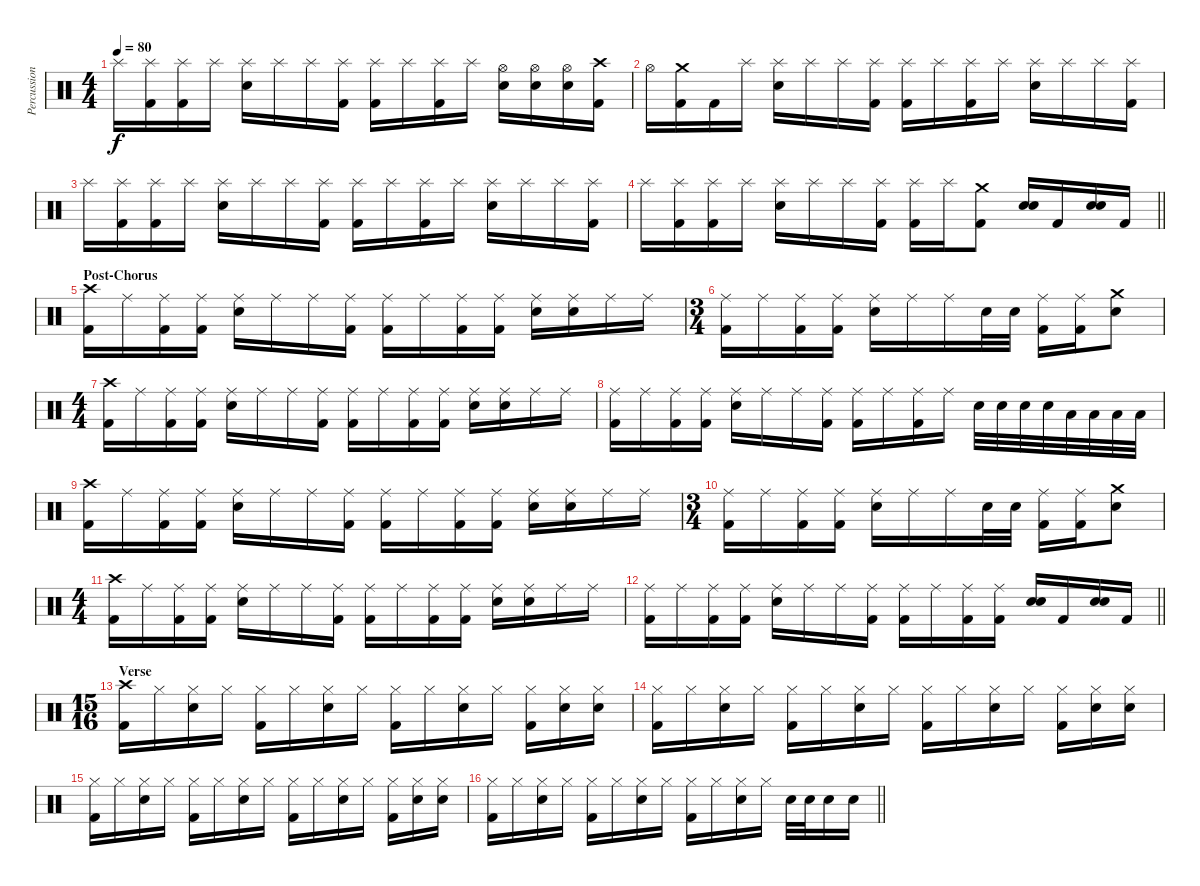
\track ("Percussion" "Percussion") {instrument percussion}
\staff {score}
\articulation defaults
\ts (4 4)
\tempo 80
\clef neutral
\ks c "Splash (hit)".16{dy f}
("Splash (hit)" "Kick (hit) 2").16 ("Splash (hit)" "Kick (hit) 2").16 "Splash (hit)".16 ("Splash (hit)" "Electric Snare (hit)").16 "Splash (hit)".16 "Splash (hit)".16 ("Splash (hit)" "Kick (hit) 2").16 ("Splash (hit)" "Kick (hit) 2").16 "Splash (hit)".16 ("Splash (hit)" "Kick (hit) 2").16 "Splash (hit)".16 ("Hi-Hat (open)" "Electric Snare (hit)").16 ("Hi-Hat (open)" "Electric Snare (hit)").16 ("Hi-Hat (open)" "Electric Snare (hit)").16 ("Crash high (hit)" "Kick (hit) 2").16 |
"Hi-Hat (open)".16 ("Crash medium (hit)" "Kick (hit) 2").16 "Kick (hit) 2".16 "Splash (hit)".16 ("Splash (hit)" "Electric Snare (hit)").16 "Splash (hit)".16 "Splash (hit)".16 ("Splash (hit)" "Kick (hit) 2").16 ("Splash (hit)" "Kick (hit) 2").16 "Splash (hit)".16 ("Splash (hit)" "Kick (hit) 2").16 "Splash (hit)".16 ("Splash (hit)" "Electric Snare (hit)").16 "Splash (hit)".16 "Splash (hit)".16 ("Splash (hit)" "Kick (hit) 2").16 |
"Splash (hit)".16 ("Splash (hit)" "Kick (hit) 2").16 ("Splash (hit)" "Kick (hit) 2").16 "Splash (hit)".16 ("Splash (hit)" "Electric Snare (hit)").16 "Splash (hit)".16 "Splash (hit)".16 ("Splash (hit)" "Kick (hit) 2").16 ("Splash (hit)" "Kick (hit) 2").16 "Splash (hit)".16 ("Splash (hit)" "Kick (hit) 2").16 "Splash (hit)".16 ("Splash (hit)" "Electric Snare (hit)").16 "Splash (hit)".16 "Splash (hit)".16 ("Splash (hit)" "Kick (hit) 2").16 |
\barLineRight lightlight "Splash (hit)".16
("Splash (hit)" "Kick (hit) 2").16 ("Splash (hit)" "Kick (hit) 2").16 "Splash (hit)".16 ("Splash (hit)" "Electric Snare (hit)").16 "Splash (hit)".16 "Splash (hit)".16 ("Splash (hit)" "Kick (hit) 2").16 ("Splash (hit)" "Kick (hit) 2").16 "Splash (hit)".16 ("Crash medium (hit)" "Kick (hit) 2").8 ("Electric Snare (hit)" "Electric Snare (hit)").16 "Kick (hit) 2".16 ("Electric Snare (hit)" "Electric Snare (hit)").16 "Kick (hit) 2".16 |
\section ("" "Post-Chorus")
("Crash high (hit)" "Kick (hit) 2").16 "Ride (middle)".16 ("Ride (middle)" "Kick (hit) 2").16 ("Ride (middle)" "Kick (hit) 2").16 ("Ride (middle)" "Electric Snare (hit)").16 "Ride (middle)".16 "Ride (middle)".16 ("Ride (middle)" "Kick (hit) 2").16 ("Ride (middle)" "Kick (hit) 2").16 "Ride (middle)".16 ("Ride (middle)" "Kick (hit) 2").16 ("Ride (middle)" "Kick (hit) 2").16 ("Ride (middle)" "Electric Snare (hit)").16 ("Ride (middle)" "Electric Snare (hit)").16 "Ride (middle)".16 "Ride (middle)".16 |
\ts (3 4)
("Ride (middle)" "Kick (hit) 2").16 "Ride (middle)".16 ("Ride (middle)" "Kick (hit) 2").16 ("Ride (middle)" "Kick (hit) 2").16 ("Ride (middle)" "Electric Snare (hit)").16 "Ride (middle)".16 "Ride (middle)".16 "Electric Snare (hit)".32 "Electric Snare (hit)".32 ("Ride (middle)" "Kick (hit) 2").16 ("Ride (middle)" "Kick (hit) 2").16 ("Crash medium (hit)" "Electric Snare (hit)").8 |
\ts (4 4)
("Crash high (hit)" "Kick (hit) 2").16 "Ride (middle)".16 ("Ride (middle)" "Kick (hit) 2").16 ("Ride (middle)" "Kick (hit) 2").16 ("Ride (middle)" "Electric Snare (hit)").16 "Ride (middle)".16 "Ride (middle)".16 ("Ride (middle)" "Kick (hit) 2").16 ("Ride (middle)" "Kick (hit) 2").16 "Ride (middle)".16 ("Ride (middle)" "Kick (hit) 2").16 ("Ride (middle)" "Kick (hit) 2").16 ("Ride (middle)" "Electric Snare (hit)").16 ("Ride (middle)" "Electric Snare (hit)").16 "Ride (middle)".16 "Ride (middle)".16 |
("Ride (middle)" "Kick (hit) 2").16 "Ride (middle)".16 ("Ride (middle)" "Kick (hit) 2").16 ("Ride (middle)" "Kick (hit) 2").16 ("Ride (middle)" "Electric Snare (hit)").16 "Ride (middle)".16 "Ride (middle)".16 ("Ride (middle)" "Kick (hit) 2").16 ("Ride (middle)" "Kick (hit) 2").16 "Ride (middle)".16 ("Ride (middle)" "Kick (hit) 2").16 "Ride (middle)".16 "Electric Snare (hit)".32 "Electric Snare (hit)".32 "Electric Snare (hit)".32 "Electric Snare (hit)".32 "Low Tom (hit)".32 "Low Tom (hit)".32 "Low Floor Tom (hit)".32 "Low Floor Tom (hit)".32 |
("Crash high (hit)" "Kick (hit) 2").16 "Ride (middle)".16 ("Ride (middle)" "Kick (hit) 2").16 ("Ride (middle)" "Kick (hit) 2").16 ("Ride (middle)" "Electric Snare (hit)").16 "Ride (middle)".16 "Ride (middle)".16 ("Ride (middle)" "Kick (hit) 2").16 ("Ride (middle)" "Kick (hit) 2").16 "Ride (middle)".16 ("Ride (middle)" "Kick (hit) 2").16 ("Ride (middle)" "Kick (hit) 2").16 ("Ride (middle)" "Electric Snare (hit)").16 ("Ride (middle)" "Electric Snare (hit)").16 "Ride (middle)".16 "Ride (middle)".16 |
\ts (3 4)
("Ride (middle)" "Kick (hit) 2").16 "Ride (middle)".16 ("Ride (middle)" "Kick (hit) 2").16 ("Ride (middle)" "Kick (hit) 2").16 ("Ride (middle)" "Electric Snare (hit)").16 "Ride (middle)".16 "Ride (middle)".16 "Electric Snare (hit)".32 "Electric Snare (hit)".32 ("Ride (middle)" "Kick (hit) 2").16 ("Ride (middle)" "Kick (hit) 2").16 ("Crash medium (hit)" "Electric Snare (hit)").8 |
\ts (4 4)
("Crash high (hit)" "Kick (hit) 2").16 "Ride (middle)".16 ("Ride (middle)" "Kick (hit) 2").16 ("Ride (middle)" "Kick (hit) 2").16 ("Ride (middle)" "Electric Snare (hit)").16 "Ride (middle)".16 "Ride (middle)".16 ("Ride (middle)" "Kick (hit) 2").16 ("Ride (middle)" "Kick (hit) 2").16 "Ride (middle)".16 ("Ride (middle)" "Kick (hit) 2").16 ("Ride (middle)" "Kick (hit) 2").16 ("Ride (middle)" "Electric Snare (hit)").16 ("Ride (middle)" "Electric Snare (hit)").16 "Ride (middle)".16 "Ride (middle)".16 |
\barLineRight lightlight
("Ride (middle)" "Kick (hit) 2").16 "Ride (middle)".16 ("Ride (middle)" "Kick (hit) 2").16 ("Ride (middle)" "Kick (hit) 2").16 ("Ride (middle)" "Electric Snare (hit)").16 "Ride (middle)".16 "Ride (middle)".16 ("Ride (middle)" "Kick (hit) 2").16 ("Ride (middle)" "Kick (hit) 2").16 "Ride (middle)".16 ("Ride (middle)" "Kick (hit) 2").16 ("Ride (middle)" "Kick (hit) 2").16 ("Electric Snare (hit)" "Electric Snare (hit)").16 "Kick (hit) 2".16 ("Electric Snare (hit)" "Electric Snare (hit)").16 "Kick (hit) 2".16 |
\ts (15 16)
\section ("" "Verse")
("Crash high (hit)" "Kick (hit) 2").16 "Hi-Hat (closed)".16 ("Hi-Hat (closed)" "Electric Snare (hit)").16 "Hi-Hat (closed)".16 ("Hi-Hat (closed)" "Kick (hit) 2").16 "Hi-Hat (closed)".16 ("Hi-Hat (closed)" "Electric Snare (hit)").16 "Hi-Hat (closed)".16 ("Hi-Hat (closed)" "Kick (hit) 2").16 "Hi-Hat (closed)".16 ("Hi-Hat (closed)" "Electric Snare (hit)").16 "Hi-Hat (closed)".16 ("Hi-Hat (closed)" "Kick (hit) 2").16 ("Hi-Hat (closed)" "Electric Snare (hit)").16 ("Hi-Hat (closed)" "Electric Snare (hit)").16 |
("Hi-Hat (closed)" "Kick (hit) 2").16 "Hi-Hat (closed)".16 ("Hi-Hat (closed)" "Electric Snare (hit)").16 "Hi-Hat (closed)".16 ("Hi-Hat (closed)" "Kick (hit) 2").16 "Hi-Hat (closed)".16 ("Hi-Hat (closed)" "Electric Snare (hit)").16 "Hi-Hat (closed)".16 ("Hi-Hat (closed)" "Kick (hit) 2").16 "Hi-Hat (closed)".16 ("Hi-Hat (closed)" "Electric Snare (hit)").16 "Hi-Hat (closed)".16 ("Hi-Hat (closed)" "Kick (hit) 2").16 ("Hi-Hat (closed)" "Electric Snare (hit)").16 ("Hi-Hat (closed)" "Electric Snare (hit)").16 |
("Hi-Hat (closed)" "Kick (hit) 2").16 "Hi-Hat (closed)".16 ("Hi-Hat (closed)" "Electric Snare (hit)").16 "Hi-Hat (closed)".16 ("Hi-Hat (closed)" "Kick (hit) 2").16 "Hi-Hat (closed)".16 ("Hi-Hat (closed)" "Electric Snare (hit)").16 "Hi-Hat (closed)".16 ("Hi-Hat (closed)" "Kick (hit) 2").16 "Hi-Hat (closed)".16 ("Hi-Hat (closed)" "Electric Snare (hit)").16 "Hi-Hat (closed)".16 ("Hi-Hat (closed)" "Kick (hit) 2").16 ("Hi-Hat (closed)" "Electric Snare (hit)").16 ("Hi-Hat (closed)" "Electric Snare (hit)").16 |
\barLineRight lightlight
("Hi-Hat (closed)" "Kick (hit) 2").16 "Hi-Hat (closed)".16 ("Hi-Hat (closed)" "Electric Snare (hit)").16 "Hi-Hat (closed)".16 ("Hi-Hat (closed)" "Kick (hit) 2").16 "Hi-Hat (closed)".16 ("Hi-Hat (closed)" "Electric Snare (hit)").16 "Hi-Hat (closed)".16 ("Hi-Hat (closed)" "Kick (hit) 2").16 "Hi-Hat (closed)".16 ("Hi-Hat (closed)" "Electric Snare (hit)").16 "Hi-Hat (closed)".16 "Electric Snare (hit)".32 "Electric Snare (hit)".32 "Electric Snare (hit)".16 "Electric Snare (hit)".16
